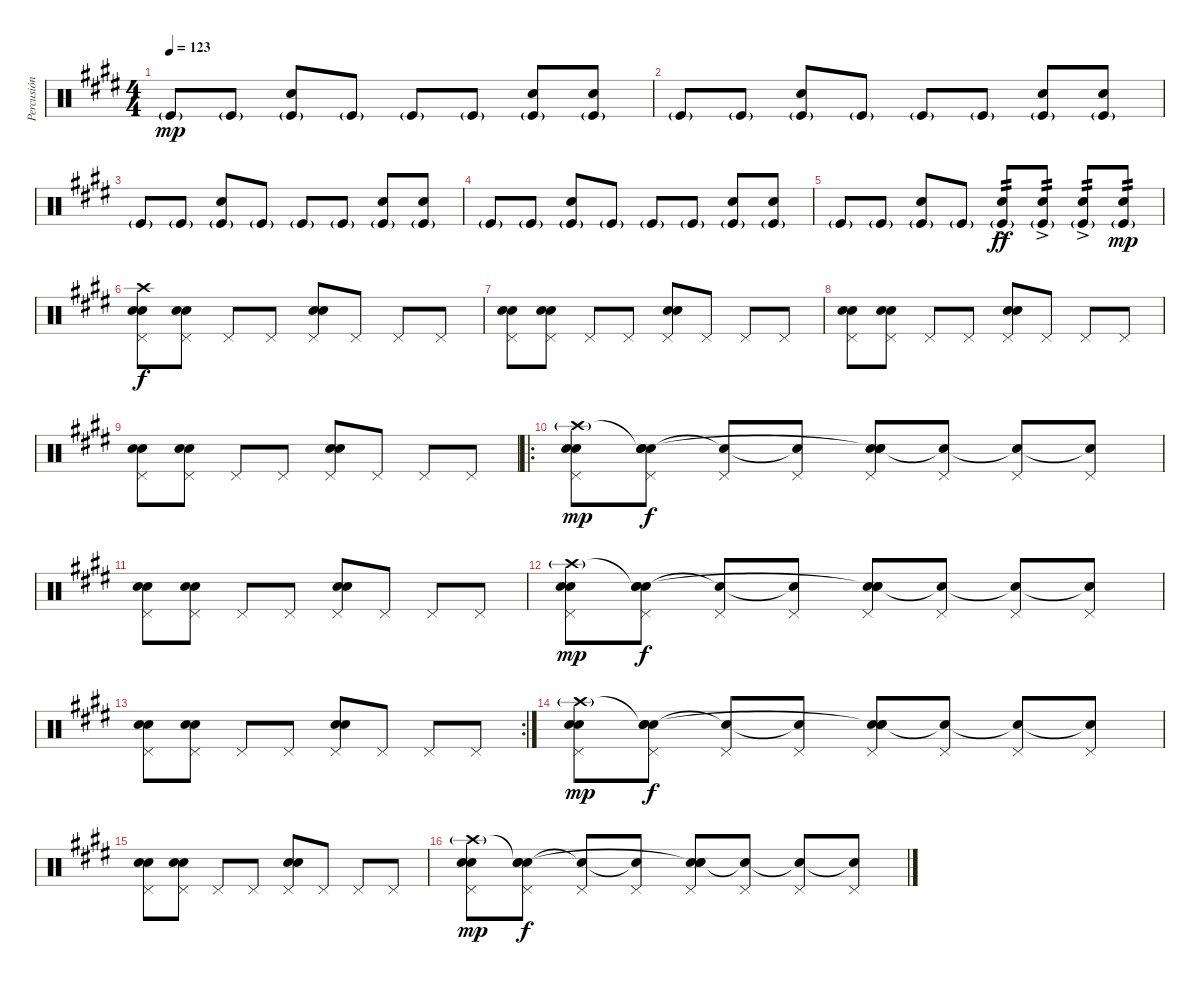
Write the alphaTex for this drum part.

\track ("Percusión" "Percusión") {instrument percussion}
\staff {score}
\articulation defaults
\ts (4 4)
\tempo 123
\clef neutral
\ks e "Kick (hit)"{g}.8{dy mp} "Kick (hit)"{g}.8
("Kick (hit)"{g} "Hand Clap (hit)").8 "Kick (hit)"{g}.8 "Kick (hit)"{g}.8 "Kick (hit)"{g}.8 ("Kick (hit)"{g} "Hand Clap (hit)").8 ("Kick (hit)"{g} "Hand Clap (hit)").8 |
"Kick (hit)"{g}.8 "Kick (hit)"{g}.8 ("Kick (hit)"{g} "Hand Clap (hit)").8 "Kick (hit)"{g}.8 "Kick (hit)"{g}.8 "Kick (hit)"{g}.8 ("Kick (hit)"{g} "Hand Clap (hit)").8 ("Kick (hit)"{g} "Hand Clap (hit)").8 |
"Kick (hit)"{g}.8{volume 16} "Kick (hit)"{g}.8 ("Kick (hit)"{g} "Hand Clap (hit)").8 "Kick (hit)"{g}.8 "Kick (hit)"{g}.8 "Kick (hit)"{g}.8 ("Kick (hit)"{g} "Hand Clap (hit)").8 ("Kick (hit)"{g} "Hand Clap (hit)").8 |
"Kick (hit)"{g}.8 "Kick (hit)"{g}.8 ("Kick (hit)"{g} "Hand Clap (hit)").8 "Kick (hit)"{g}.8 "Kick (hit)"{g}.8 "Kick (hit)"{g}.8 ("Kick (hit)"{g} "Hand Clap (hit)").8 ("Kick (hit)"{g} "Hand Clap (hit)").8 |
"Kick (hit)"{g}.8 "Kick (hit)"{g}.8 ("Kick (hit)"{g} "Hand Clap (hit)").8 "Kick (hit)"{g}.8 ("Kick (hit)"{g} "Snare (hit) 2"{ac}).8{tp 2 dy ff} ("Kick (hit)"{g} "Snare (hit) 2"{ac}).8{tp 2} ("Kick (hit)"{g} "Snare (hit) 2"{ac}).8{tp 2} ("Kick (hit)"{g} "Snare (hit) 2").8{tp 2 dy mp} |
("Pedal Hi-Hat (hit)" "Crash high (hit)" "Snare (hit) 2" "Electric Snare (hit)").8{dy f} ("Pedal Hi-Hat (hit)" "Electric Snare (hit)" "Snare (hit) 2").8 "Pedal Hi-Hat (hit)".8 "Pedal Hi-Hat (hit)".8 ("Pedal Hi-Hat (hit)" "Snare (hit) 2" "Electric Snare (hit)").8 "Pedal Hi-Hat (hit)".8 "Pedal Hi-Hat (hit)".8 "Pedal Hi-Hat (hit)".8 |
("Pedal Hi-Hat (hit)" "Electric Snare (hit)" "Snare (hit) 2").8 ("Pedal Hi-Hat (hit)" "Snare (hit) 2" "Electric Snare (hit)").8 "Pedal Hi-Hat (hit)".8 "Pedal Hi-Hat (hit)".8 ("Pedal Hi-Hat (hit)" "Snare (hit) 2" "Electric Snare (hit)").8 "Pedal Hi-Hat (hit)".8 "Pedal Hi-Hat (hit)".8 "Pedal Hi-Hat (hit)".8 |
("Pedal Hi-Hat (hit)" "Electric Snare (hit)" "Snare (hit) 2").8 ("Pedal Hi-Hat (hit)" "Snare (hit) 2" "Electric Snare (hit)").8 "Pedal Hi-Hat (hit)".8 "Pedal Hi-Hat (hit)".8 ("Pedal Hi-Hat (hit)" "Electric Snare (hit)" "Snare (hit) 2").8 "Pedal Hi-Hat (hit)".8 "Pedal Hi-Hat (hit)".8 "Pedal Hi-Hat (hit)".8 |
("Pedal Hi-Hat (hit)" "Snare (hit) 2" "Electric Snare (hit)").8 ("Pedal Hi-Hat (hit)" "Electric Snare (hit)" "Snare (hit) 2").8 "Pedal Hi-Hat (hit)".8 "Pedal Hi-Hat (hit)".8 ("Pedal Hi-Hat (hit)" "Electric Snare (hit)" "Snare (hit) 2").8 "Pedal Hi-Hat (hit)".8 "Pedal Hi-Hat (hit)".8 "Pedal Hi-Hat (hit)".8 |
\ro
("Pedal Hi-Hat (hit)" "Electric Snare (hit)" "Snare (hit) 2" "Crash high (hit)"{g}).8{dy mp} ("Pedal Hi-Hat (hit)" "Electric Snare (hit)" "Snare (hit) 2" "Snare (hit)"{t}).8{dy f} ("Pedal Hi-Hat (hit)" "Snare (hit)"{t}).8 ("Pedal Hi-Hat (hit)" "Snare (hit)"{t}).8 ("Pedal Hi-Hat (hit)" "Electric Snare (hit)" "Snare (hit) 2" "Snare (hit)"{t}).8 ("Pedal Hi-Hat (hit)" "Snare (hit)"{t}).8 ("Pedal Hi-Hat (hit)" "Snare (hit)"{t}).8 ("Pedal Hi-Hat (hit)" "Snare (hit)"{t}).8 |
\ks c#minor
("Pedal Hi-Hat (hit)" "Snare (hit) 2" "Electric Snare (hit)").8 ("Pedal Hi-Hat (hit)" "Electric Snare (hit)" "Snare (hit) 2").8 "Pedal Hi-Hat (hit)".8 "Pedal Hi-Hat (hit)".8 ("Pedal Hi-Hat (hit)" "Electric Snare (hit)" "Snare (hit) 2").8 "Pedal Hi-Hat (hit)".8 "Pedal Hi-Hat (hit)".8 "Pedal Hi-Hat (hit)".8 |
("Pedal Hi-Hat (hit)" "Electric Snare (hit)" "Snare (hit) 2" "Crash high (hit)"{g}).8{dy mp} ("Pedal Hi-Hat (hit)" "Electric Snare (hit)" "Snare (hit) 2" "Snare (hit)"{t}).8{dy f} ("Pedal Hi-Hat (hit)" "Snare (hit)"{t}).8 ("Pedal Hi-Hat (hit)" "Snare (hit)"{t}).8 ("Pedal Hi-Hat (hit)" "Electric Snare (hit)" "Snare (hit) 2" "Snare (hit)"{t}).8 ("Pedal Hi-Hat (hit)" "Snare (hit)"{t}).8 ("Pedal Hi-Hat (hit)" "Snare (hit)"{t}).8 ("Pedal Hi-Hat (hit)" "Snare (hit)"{t}).8 |
\rc 2
("Pedal Hi-Hat (hit)" "Snare (hit) 2" "Electric Snare (hit)").8 ("Pedal Hi-Hat (hit)" "Snare (hit) 2" "Electric Snare (hit)").8 "Pedal Hi-Hat (hit)".8 "Pedal Hi-Hat (hit)".8 ("Pedal Hi-Hat (hit)" "Snare (hit) 2" "Electric Snare (hit)").8 "Pedal Hi-Hat (hit)".8 "Pedal Hi-Hat (hit)".8 "Pedal Hi-Hat (hit)".8 |
\ks e
("Pedal Hi-Hat (hit)" "Electric Snare (hit)" "Snare (hit) 2" "Crash high (hit)"{g}).8{dy mp} ("Pedal Hi-Hat (hit)" "Electric Snare (hit)" "Snare (hit) 2" "Snare (hit)"{t}).8{dy f} ("Pedal Hi-Hat (hit)" "Snare (hit)"{t}).8 ("Pedal Hi-Hat (hit)" "Snare (hit)"{t}).8 ("Pedal Hi-Hat (hit)" "Electric Snare (hit)" "Snare (hit) 2" "Snare (hit)"{t}).8 ("Pedal Hi-Hat (hit)" "Snare (hit)"{t}).8 ("Pedal Hi-Hat (hit)" "Snare (hit)"{t}).8 ("Pedal Hi-Hat (hit)" "Snare (hit)"{t}).8 |
\ks c#minor
("Pedal Hi-Hat (hit)" "Snare (hit) 2" "Electric Snare (hit)").8 ("Pedal Hi-Hat (hit)" "Electric Snare (hit)" "Snare (hit) 2").8 "Pedal Hi-Hat (hit)".8 "Pedal Hi-Hat (hit)".8 ("Pedal Hi-Hat (hit)" "Electric Snare (hit)" "Snare (hit) 2").8 "Pedal Hi-Hat (hit)".8 "Pedal Hi-Hat (hit)".8 "Pedal Hi-Hat (hit)".8 |
("Pedal Hi-Hat (hit)" "Electric Snare (hit)" "Snare (hit) 2" "Crash high (hit)"{g}).8{dy mp} ("Pedal Hi-Hat (hit)" "Electric Snare (hit)" "Snare (hit) 2" "Snare (hit)"{t}).8{dy f} ("Pedal Hi-Hat (hit)" "Snare (hit)"{t}).8 ("Pedal Hi-Hat (hit)" "Snare (hit)"{t}).8 ("Pedal Hi-Hat (hit)" "Electric Snare (hit)" "Snare (hit) 2" "Snare (hit)"{t}).8 ("Pedal Hi-Hat (hit)" "Snare (hit)"{t}).8 ("Pedal Hi-Hat (hit)" "Snare (hit)"{t}).8 ("Pedal Hi-Hat (hit)" "Snare (hit)"{t}).8
